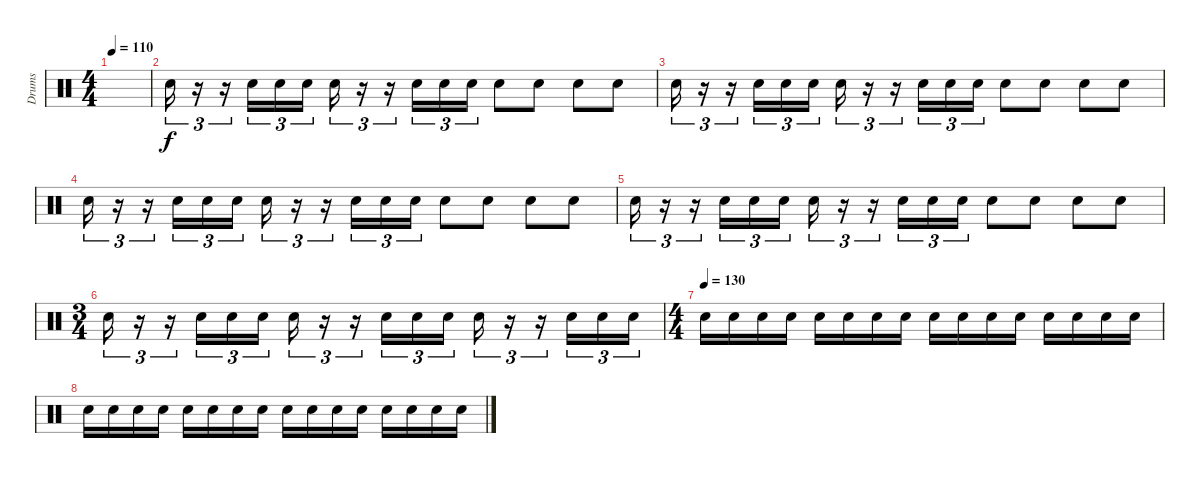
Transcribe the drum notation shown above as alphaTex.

\track ("Drums" "Drums") {instrument percussion}
\staff {score}
\articulation defaults
\ts (4 4)
\tempo 110
\clef neutral
\ks c
|
"Electric Snare (hit)".16{tu (3 2)} r.16{tu (3 2)} r.16{tu (3 2)} "Electric Snare (hit)".16{tu (3 2)} "Electric Snare (hit)".16{tu (3 2)} "Electric Snare (hit)".16{tu (3 2)} "Electric Snare (hit)".16{tu (3 2)} r.16{tu (3 2)} r.16{tu (3 2)} "Electric Snare (hit)".16{tu (3 2)} "Electric Snare (hit)".16{tu (3 2)} "Electric Snare (hit)".16{tu (3 2)} "Electric Snare (hit)".8 "Electric Snare (hit)".8 "Electric Snare (hit)".8 "Electric Snare (hit)".8 |
"Electric Snare (hit)".16{tu (3 2)} r.16{tu (3 2)} r.16{tu (3 2)} "Electric Snare (hit)".16{tu (3 2)} "Electric Snare (hit)".16{tu (3 2)} "Electric Snare (hit)".16{tu (3 2)} "Electric Snare (hit)".16{tu (3 2)} r.16{tu (3 2)} r.16{tu (3 2)} "Electric Snare (hit)".16{tu (3 2)} "Electric Snare (hit)".16{tu (3 2)} "Electric Snare (hit)".16{tu (3 2)} "Electric Snare (hit)".8 "Electric Snare (hit)".8 "Electric Snare (hit)".8 "Electric Snare (hit)".8 |
"Electric Snare (hit)".16{tu (3 2)} r.16{tu (3 2)} r.16{tu (3 2)} "Electric Snare (hit)".16{tu (3 2)} "Electric Snare (hit)".16{tu (3 2)} "Electric Snare (hit)".16{tu (3 2)} "Electric Snare (hit)".16{tu (3 2)} r.16{tu (3 2)} r.16{tu (3 2)} "Electric Snare (hit)".16{tu (3 2)} "Electric Snare (hit)".16{tu (3 2)} "Electric Snare (hit)".16{tu (3 2)} "Electric Snare (hit)".8 "Electric Snare (hit)".8 "Electric Snare (hit)".8 "Electric Snare (hit)".8 |
"Electric Snare (hit)".16{tu (3 2)} r.16{tu (3 2)} r.16{tu (3 2)} "Electric Snare (hit)".16{tu (3 2)} "Electric Snare (hit)".16{tu (3 2)} "Electric Snare (hit)".16{tu (3 2)} "Electric Snare (hit)".16{tu (3 2)} r.16{tu (3 2)} r.16{tu (3 2)} "Electric Snare (hit)".16{tu (3 2)} "Electric Snare (hit)".16{tu (3 2)} "Electric Snare (hit)".16{tu (3 2)} "Electric Snare (hit)".8 "Electric Snare (hit)".8 "Electric Snare (hit)".8 "Electric Snare (hit)".8 |
\ts (3 4)
"Electric Snare (hit)".16{tu (3 2)} r.16{tu (3 2)} r.16{tu (3 2)} "Electric Snare (hit)".16{tu (3 2)} "Electric Snare (hit)".16{tu (3 2)} "Electric Snare (hit)".16{tu (3 2)} "Electric Snare (hit)".16{tu (3 2)} r.16{tu (3 2)} r.16{tu (3 2)} "Electric Snare (hit)".16{tu (3 2)} "Electric Snare (hit)".16{tu (3 2)} "Electric Snare (hit)".16{tu (3 2)} "Electric Snare (hit)".16{tu (3 2)} r.16{tu (3 2)} r.16{tu (3 2)} "Electric Snare (hit)".16{tu (3 2)} "Electric Snare (hit)".16{tu (3 2)} "Electric Snare (hit)".16{tu (3 2)} |
\ts (4 4)
\tempo (130)
"Electric Snare (hit)".16 "Electric Snare (hit)".16 "Electric Snare (hit)".16 "Electric Snare (hit)".16 "Electric Snare (hit)".16 "Electric Snare (hit)".16 "Electric Snare (hit)".16 "Electric Snare (hit)".16 "Electric Snare (hit)".16 "Electric Snare (hit)".16 "Electric Snare (hit)".16 "Electric Snare (hit)".16 "Electric Snare (hit)".16 "Electric Snare (hit)".16 "Electric Snare (hit)".16 "Electric Snare (hit)".16 |
"Electric Snare (hit)".16{volume 0} "Electric Snare (hit)".16 "Electric Snare (hit)".16 "Electric Snare (hit)".16 "Electric Snare (hit)".16 "Electric Snare (hit)".16 "Electric Snare (hit)".16 "Electric Snare (hit)".16 "Electric Snare (hit)".16 "Electric Snare (hit)".16 "Electric Snare (hit)".16 "Electric Snare (hit)".16 "Electric Snare (hit)".16 "Electric Snare (hit)".16 "Electric Snare (hit)".16 "Electric Snare (hit)".16
